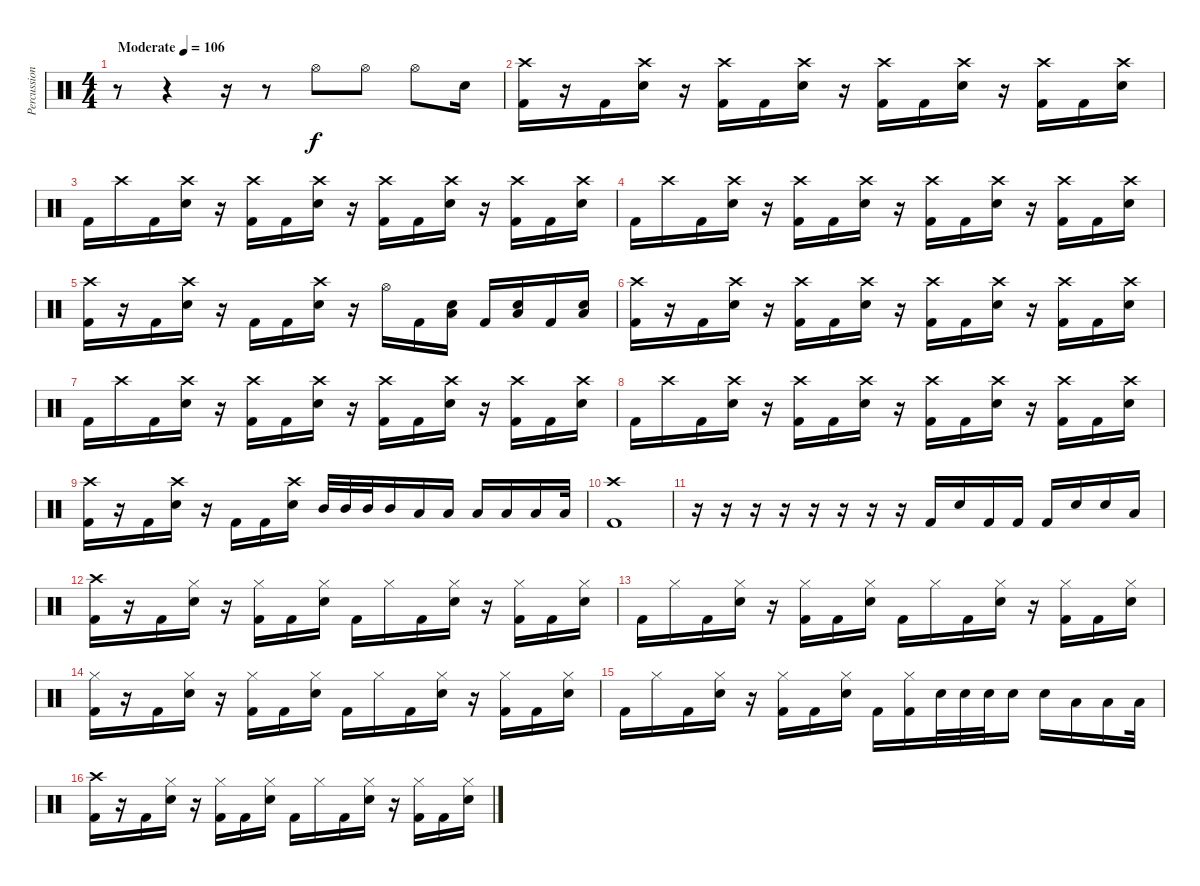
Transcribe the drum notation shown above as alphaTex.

\track ("Percussion" "Percussion") {instrument percussion}
\staff {score}
\articulation defaults
\ts (4 4)
\tempo (106 "Moderate")
\clef neutral
\ks c
r.8{dy f} r.4 r.16 r.8 "Hi-Hat (open)".8 "Hi-Hat (open)".8 "Hi-Hat (open)".8 "Snare (hit) 2".16 |
("Crash high (hit)" "Kick (hit) 2").16 r.16 "Kick (hit) 2".16 ("Crash high (hit)" "Snare (hit) 2").16 r.16 ("Crash high (hit)" "Kick (hit) 2").16 "Kick (hit) 2".16 ("Crash high (hit)" "Snare (hit) 2").16 r.16 ("Crash high (hit)" "Kick (hit) 2").16 "Kick (hit) 2".16 ("Crash high (hit)" "Snare (hit) 2").16 r.16 ("Crash high (hit)" "Kick (hit) 2").16 "Kick (hit) 2".16 ("Crash high (hit)" "Snare (hit) 2").16 |
"Kick (hit) 2".16 "Crash high (hit)".16 "Kick (hit) 2".16 ("Crash high (hit)" "Snare (hit) 2").16 r.16 ("Crash high (hit)" "Kick (hit) 2").16 "Kick (hit) 2".16 ("Crash high (hit)" "Snare (hit) 2").16 r.16 ("Crash high (hit)" "Kick (hit) 2").16 "Kick (hit) 2".16 ("Crash high (hit)" "Snare (hit) 2").16 r.16 ("Crash high (hit)" "Kick (hit) 2").16 "Kick (hit) 2".16 ("Crash high (hit)" "Snare (hit) 2").16 |
"Kick (hit) 2".16 "Crash high (hit)".16 "Kick (hit) 2".16 ("Crash high (hit)" "Snare (hit) 2").16 r.16 ("Crash high (hit)" "Kick (hit) 2").16 "Kick (hit) 2".16 ("Crash high (hit)" "Snare (hit) 2").16 r.16 ("Crash high (hit)" "Kick (hit) 2").16 "Kick (hit) 2".16 ("Crash high (hit)" "Snare (hit) 2").16 r.16 ("Crash high (hit)" "Kick (hit) 2").16 "Kick (hit) 2".16 ("Crash high (hit)" "Snare (hit) 2").16 |
("Crash high (hit)" "Kick (hit) 2").16 r.16 "Kick (hit) 2".16 ("Crash high (hit)" "Snare (hit) 2").16 r.16 "Kick (hit) 2".16 "Kick (hit) 2".16 ("Crash high (hit)" "Snare (hit) 2").16 r.16 "Hi-Hat (open)".16 "Kick (hit) 2".16 ("Low Floor Tom (hit)" "Snare (hit) 2").16 "Kick (hit) 2".16 ("Low Floor Tom (hit)" "Snare (hit) 2").16 "Kick (hit) 2".16 ("Low Floor Tom (hit)" "Snare (hit) 2").16 |
("Crash high (hit)" "Kick (hit) 2").16 r.16 "Kick (hit) 2".16 ("Crash high (hit)" "Snare (hit) 2").16 r.16 ("Crash high (hit)" "Kick (hit) 2").16 "Kick (hit) 2".16 ("Crash high (hit)" "Snare (hit) 2").16 r.16 ("Crash high (hit)" "Kick (hit) 2").16 "Kick (hit) 2".16 ("Crash high (hit)" "Snare (hit) 2").16 r.16 ("Crash high (hit)" "Kick (hit) 2").16 "Kick (hit) 2".16 ("Crash high (hit)" "Snare (hit) 2").16 |
"Kick (hit) 2".16 "Crash high (hit)".16 "Kick (hit) 2".16 ("Crash high (hit)" "Snare (hit) 2").16 r.16 ("Crash high (hit)" "Kick (hit) 2").16 "Kick (hit) 2".16 ("Crash high (hit)" "Snare (hit) 2").16 r.16 ("Crash high (hit)" "Kick (hit) 2").16 "Kick (hit) 2".16 ("Crash high (hit)" "Snare (hit) 2").16 r.16 ("Crash high (hit)" "Kick (hit) 2").16 "Kick (hit) 2".16 ("Crash high (hit)" "Snare (hit) 2").16 |
"Kick (hit) 2".16 "Crash high (hit)".16 "Kick (hit) 2".16 ("Crash high (hit)" "Snare (hit) 2").16 r.16 ("Crash high (hit)" "Kick (hit) 2").16 "Kick (hit) 2".16 ("Crash high (hit)" "Snare (hit) 2").16 r.16 ("Crash high (hit)" "Kick (hit) 2").16 "Kick (hit) 2".16 ("Crash high (hit)" "Snare (hit) 2").16 r.16 ("Crash high (hit)" "Kick (hit) 2").16 "Kick (hit) 2".16 ("Crash high (hit)" "Snare (hit) 2").16 |
("Crash high (hit)" "Kick (hit) 2").16 r.16 "Kick (hit) 2".16 ("Crash high (hit)" "Snare (hit) 2").16 r.16 "Kick (hit) 2".16 "Kick (hit) 2".16 ("Crash high (hit)" "Snare (hit) 2").16 "Mid Tom (hit)".32 "Mid Tom (hit)".32 "Mid Tom (hit)".32 "Mid Tom (hit)".16 "Low Tom (hit)".16 "Low Tom (hit)".16 "Low Tom (hit)".16 "Low Tom (hit)".16 "Low Floor Tom (hit)".16 "Low Floor Tom (hit)".32 |
("Crash high (hit)" "Kick (hit) 2").1 |
r.16 r.16 r.16 r.16 r.16 r.16 r.16 r.16 "Kick (hit) 2".16 "Snare (hit) 2".16 "Kick (hit) 2".16 "Kick (hit) 2".16 "Kick (hit) 2".16 "Snare (hit) 2".16 "Snare (hit) 2".16 "Low Tom (hit)".16 |
("Crash high (hit)" "Kick (hit) 2").16 r.16 "Kick (hit) 2".16 ("Hi-Hat (closed)" "Snare (hit) 2").16 r.16 ("Hi-Hat (closed)" "Kick (hit) 2").16 "Kick (hit) 2".16 ("Hi-Hat (closed)" "Snare (hit) 2").16 "Kick (hit) 2".16 "Hi-Hat (closed)".16 "Kick (hit) 2".16 ("Hi-Hat (closed)" "Snare (hit) 2").16 r.16 ("Hi-Hat (closed)" "Kick (hit) 2").16 "Kick (hit) 2".16 ("Hi-Hat (closed)" "Snare (hit) 2").16 |
"Kick (hit) 2".16 "Hi-Hat (closed)".16 "Kick (hit) 2".16 ("Hi-Hat (closed)" "Snare (hit) 2").16 r.16 ("Hi-Hat (closed)" "Kick (hit) 2").16 "Kick (hit) 2".16 ("Hi-Hat (closed)" "Snare (hit) 2").16 "Kick (hit) 2".16 "Hi-Hat (closed)".16 "Kick (hit) 2".16 ("Hi-Hat (closed)" "Snare (hit) 2").16 r.16 ("Hi-Hat (closed)" "Kick (hit) 2").16 "Kick (hit) 2".16 ("Hi-Hat (closed)" "Snare (hit) 2").16 |
("Hi-Hat (closed)" "Kick (hit) 2").16 r.16 "Kick (hit) 2".16 ("Hi-Hat (closed)" "Snare (hit) 2").16 r.16 ("Hi-Hat (closed)" "Kick (hit) 2").16 "Kick (hit) 2".16 ("Hi-Hat (closed)" "Snare (hit) 2").16 "Kick (hit) 2".16 "Hi-Hat (closed)".16 "Kick (hit) 2".16 ("Hi-Hat (closed)" "Snare (hit) 2").16 r.16 ("Hi-Hat (closed)" "Kick (hit) 2").16 "Kick (hit) 2".16 ("Hi-Hat (closed)" "Snare (hit) 2").16 |
"Kick (hit) 2".16 "Hi-Hat (closed)".16 "Kick (hit) 2".16 ("Hi-Hat (closed)" "Snare (hit) 2").16 r.16 ("Hi-Hat (closed)" "Kick (hit) 2").16 "Kick (hit) 2".16 ("Hi-Hat (closed)" "Snare (hit) 2").16 "Kick (hit) 2".16 ("Hi-Hat (closed)" "Kick (hit) 2").16 "Snare (hit) 2".32 "Snare (hit) 2".32 "Snare (hit) 2".32 "Snare (hit) 2".16 "Snare (hit) 2".16 "Low Tom (hit)".16 "Low Tom (hit)".16 "Low Tom (hit)".32 |
("Crash high (hit)" "Kick (hit) 2").16 r.16 "Kick (hit) 2".16 ("Hi-Hat (closed)" "Snare (hit) 2").16 r.16 ("Hi-Hat (closed)" "Kick (hit) 2").16 "Kick (hit) 2".16 ("Hi-Hat (closed)" "Snare (hit) 2").16 "Kick (hit) 2".16 "Hi-Hat (closed)".16 "Kick (hit) 2".16 ("Hi-Hat (closed)" "Snare (hit) 2").16 r.16 ("Hi-Hat (closed)" "Kick (hit) 2").16 "Kick (hit) 2".16 ("Hi-Hat (closed)" "Snare (hit) 2").16
